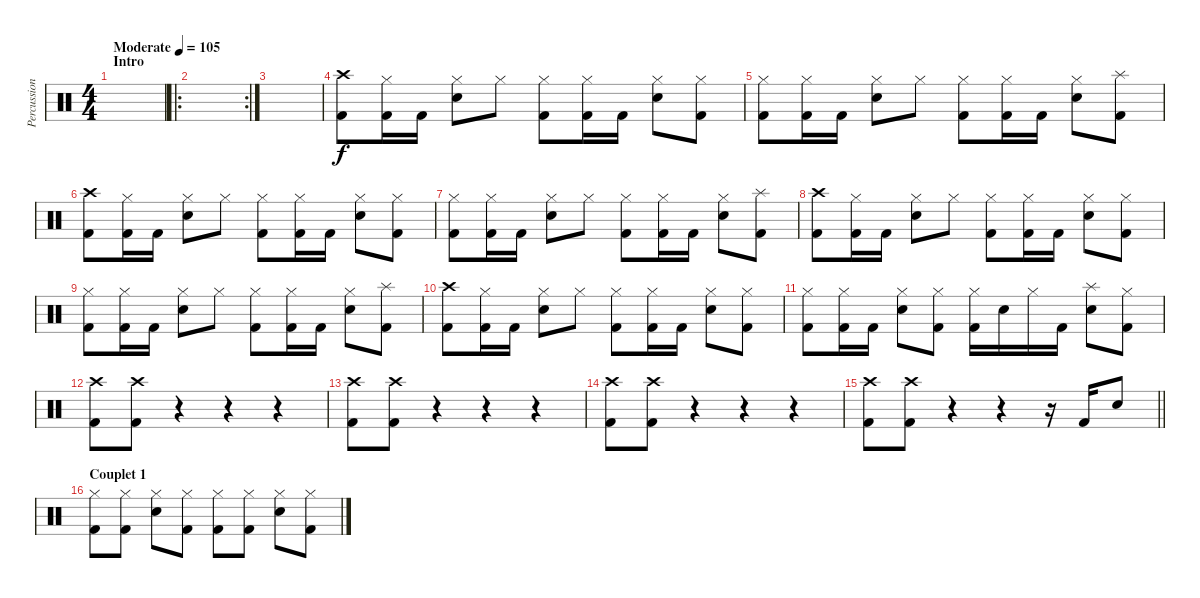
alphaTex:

\track ("Percussions" "Percussion") {instrument percussion}
\staff {score}
\articulation defaults
\ts (4 4)
\section ("" "Intro")
\tempo (105 "Moderate")
\clef neutral
\ks c
|
\ro
\rc 2
|
|
("Crash high (hit)" "Kick (hit) 2").8 ("Hi-Hat (closed)" "Kick (hit) 2").16 "Kick (hit) 2".16 ("Hi-Hat (closed)" "Electric Snare (hit)").8 "Hi-Hat (closed)".8 ("Hi-Hat (closed)" "Kick (hit) 2").8 ("Hi-Hat (closed)" "Kick (hit) 2").16 "Kick (hit) 2".16 ("Hi-Hat (closed)" "Electric Snare (hit)").8 ("Hi-Hat (closed)" "Kick (hit) 2").8 |
("Hi-Hat (closed)" "Kick (hit) 2").8 ("Hi-Hat (closed)" "Kick (hit) 2").16 "Kick (hit) 2".16 ("Hi-Hat (closed)" "Electric Snare (hit)").8 "Hi-Hat (closed)".8 ("Hi-Hat (closed)" "Kick (hit) 2").8 ("Hi-Hat (closed)" "Kick (hit) 2").16 "Kick (hit) 2".16 ("Hi-Hat (closed)" "Electric Snare (hit)").8 ("Splash (hit)" "Kick (hit) 2").8 |
("Crash high (hit)" "Kick (hit) 2").8 ("Hi-Hat (closed)" "Kick (hit) 2").16 "Kick (hit) 2".16 ("Hi-Hat (closed)" "Electric Snare (hit)").8 "Hi-Hat (closed)".8 ("Hi-Hat (closed)" "Kick (hit) 2").8 ("Hi-Hat (closed)" "Kick (hit) 2").16 "Kick (hit) 2".16 ("Hi-Hat (closed)" "Electric Snare (hit)").8 ("Hi-Hat (closed)" "Kick (hit) 2").8 |
("Hi-Hat (closed)" "Kick (hit) 2").8 ("Hi-Hat (closed)" "Kick (hit) 2").16 "Kick (hit) 2".16 ("Hi-Hat (closed)" "Electric Snare (hit)").8 "Hi-Hat (closed)".8 ("Hi-Hat (closed)" "Kick (hit) 2").8 ("Hi-Hat (closed)" "Kick (hit) 2").16 "Kick (hit) 2".16 ("Hi-Hat (closed)" "Electric Snare (hit)").8 ("Splash (hit)" "Kick (hit) 2").8 |
("Crash high (hit)" "Kick (hit) 2").8 ("Hi-Hat (closed)" "Kick (hit) 2").16 "Kick (hit) 2".16 ("Hi-Hat (closed)" "Electric Snare (hit)").8 "Hi-Hat (closed)".8 ("Hi-Hat (closed)" "Kick (hit) 2").8 ("Hi-Hat (closed)" "Kick (hit) 2").16 "Kick (hit) 2".16 ("Hi-Hat (closed)" "Electric Snare (hit)").8 ("Hi-Hat (closed)" "Kick (hit) 2").8 |
("Hi-Hat (closed)" "Kick (hit) 2").8 ("Hi-Hat (closed)" "Kick (hit) 2").16 "Kick (hit) 2".16 ("Hi-Hat (closed)" "Electric Snare (hit)").8 "Hi-Hat (closed)".8 ("Hi-Hat (closed)" "Kick (hit) 2").8 ("Hi-Hat (closed)" "Kick (hit) 2").16 "Kick (hit) 2".16 ("Hi-Hat (closed)" "Electric Snare (hit)").8 ("Splash (hit)" "Kick (hit) 2").8 |
("Crash high (hit)" "Kick (hit) 2").8 ("Hi-Hat (closed)" "Kick (hit) 2").16 "Kick (hit) 2".16 ("Hi-Hat (closed)" "Electric Snare (hit)").8 "Hi-Hat (closed)".8 ("Hi-Hat (closed)" "Kick (hit) 2").8 ("Hi-Hat (closed)" "Kick (hit) 2").16 "Kick (hit) 2".16 ("Hi-Hat (closed)" "Electric Snare (hit)").8 ("Hi-Hat (closed)" "Kick (hit) 2").8 |
("Hi-Hat (closed)" "Kick (hit) 2").8 ("Hi-Hat (closed)" "Kick (hit) 2").16 "Kick (hit) 2".16 ("Hi-Hat (closed)" "Electric Snare (hit)").8 ("Hi-Hat (closed)" "Kick (hit) 2").8 ("Hi-Hat (closed)" "Kick (hit) 2").16 "Electric Snare (hit)".16 "Hi-Hat (closed)".16 "Kick (hit) 2".16 ("Splash (hit)" "Electric Snare (hit)").8 ("Hi-Hat (closed)" "Kick (hit) 2").8 |
("Crash high (hit)" "Kick (hit) 2").8 ("Crash high (hit)" "Kick (hit) 2").8 r.4{volume 0} r.4 r.4 |
("Crash high (hit)" "Kick (hit) 2").8{volume 13} ("Crash high (hit)" "Kick (hit) 2").8 r.4{volume 0} r.4 r.4 |
("Crash high (hit)" "Kick (hit) 2").8{volume 13} ("Crash high (hit)" "Kick (hit) 2").8 r.4{volume 0} r.4 r.4 |
\barLineRight lightlight
("Crash high (hit)" "Kick (hit) 2").8{volume 13} ("Crash high (hit)" "Kick (hit) 2").8 r.4{volume 0} r.4 r.16 "Kick (hit) 2".16{volume 13} "Electric Snare (hit)".8 |
\section ("" "Couplet 1")
("Hi-Hat (closed)" "Kick (hit) 2").8 ("Hi-Hat (closed)" "Kick (hit) 2").8 ("Hi-Hat (closed)" "Electric Snare (hit)").8 ("Hi-Hat (closed)" "Kick (hit) 2").8 ("Hi-Hat (closed)" "Kick (hit) 2").8 ("Hi-Hat (closed)" "Kick (hit) 2").8 ("Hi-Hat (closed)" "Electric Snare (hit)").8 ("Hi-Hat (closed)" "Kick (hit) 2").8
